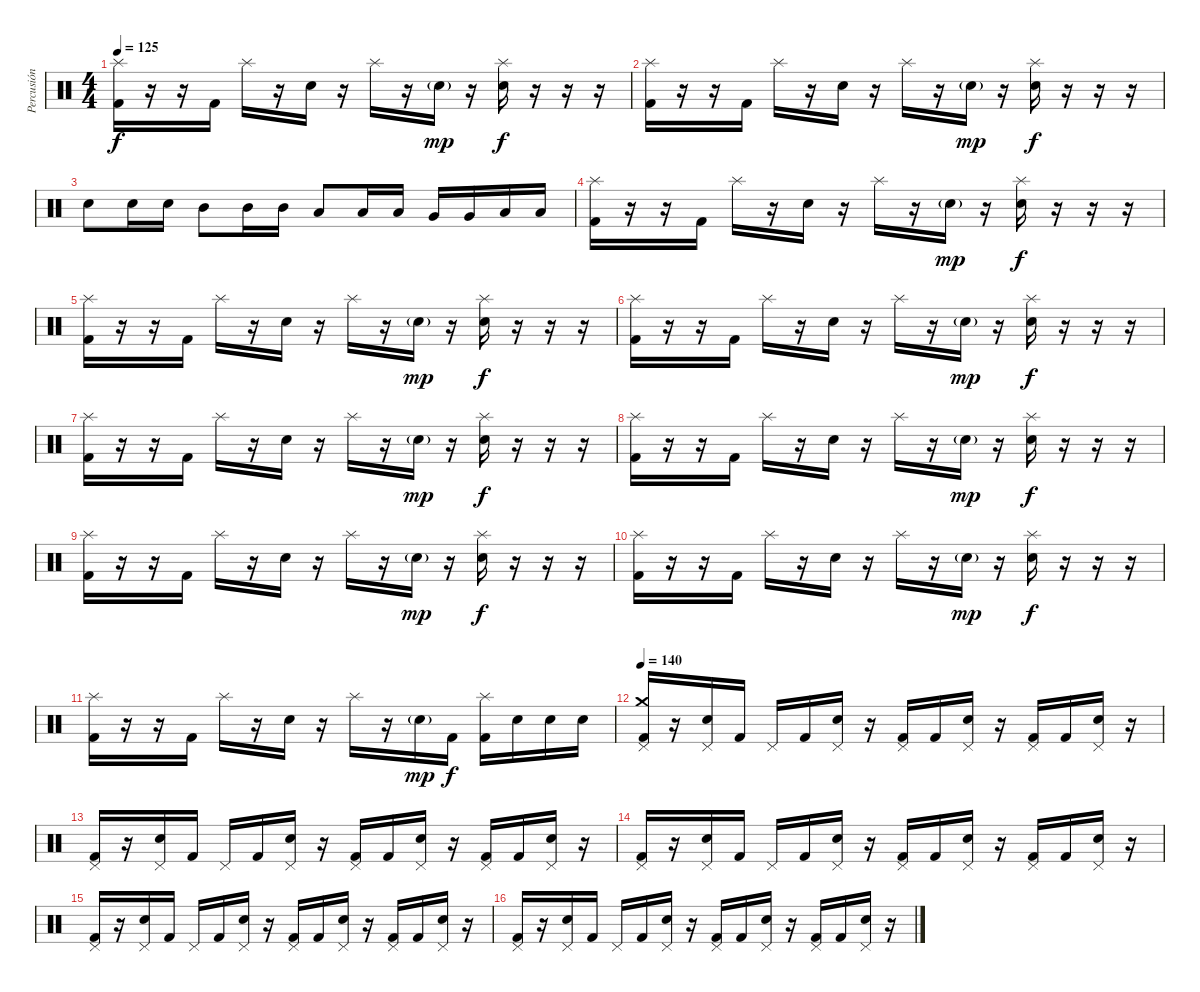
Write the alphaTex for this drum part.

\track ("Percusión" "Percusión") {instrument percussion}
\staff {score}
\articulation defaults
\ts (4 4)
\tempo 125
\clef neutral
\ks c
("Splash (hit)" "Kick (hit) 2").16{dy f} r.16 r.16 "Kick (hit) 2".16 "Splash (hit)".16 r.16 "Electric Snare (hit)".16 r.16 "Splash (hit)".16 r.16 "Electric Snare (hit)"{g}.16{dy mp} r.16 ("Splash (hit)" "Electric Snare (hit)").16{dy f} r.16 r.16 r.16 |
("Splash (hit)" "Kick (hit) 2").16 r.16 r.16 "Kick (hit) 2".16 "Splash (hit)".16 r.16 "Electric Snare (hit)".16 r.16 "Splash (hit)".16 r.16 "Electric Snare (hit)"{g}.16{dy mp} r.16 ("Splash (hit)" "Electric Snare (hit)").16{dy f} r.16 r.16 r.16 |
"Electric Snare (hit)".8 "Electric Snare (hit)".16 "Electric Snare (hit)".16 "Mid Tom (hit)".8 "Mid Tom (hit)".16 "Mid Tom (hit)".16 "Low Tom (hit)".8 "Low Tom (hit)".16 "Low Tom (hit)".16 "Very Low Tom (hit)".16 "Very Low Tom (hit)".16 "Low Floor Tom (hit)".16 "Low Floor Tom (hit)".16 |
("Splash (hit)" "Kick (hit) 2").16 r.16 r.16 "Kick (hit) 2".16 "Splash (hit)".16 r.16 "Electric Snare (hit)".16 r.16 "Splash (hit)".16 r.16 "Electric Snare (hit)"{g}.16{dy mp} r.16 ("Splash (hit)" "Electric Snare (hit)").16{dy f} r.16 r.16 r.16 |
("Splash (hit)" "Kick (hit) 2").16 r.16 r.16 "Kick (hit) 2".16 "Splash (hit)".16 r.16 "Electric Snare (hit)".16 r.16 "Splash (hit)".16 r.16 "Electric Snare (hit)"{g}.16{dy mp} r.16 ("Splash (hit)" "Electric Snare (hit)").16{dy f} r.16 r.16 r.16 |
("Splash (hit)" "Kick (hit) 2").16 r.16 r.16 "Kick (hit) 2".16 "Splash (hit)".16 r.16 "Electric Snare (hit)".16 r.16 "Splash (hit)".16 r.16 "Electric Snare (hit)"{g}.16{dy mp} r.16 ("Splash (hit)" "Electric Snare (hit)").16{dy f} r.16 r.16 r.16 |
("Splash (hit)" "Kick (hit) 2").16 r.16 r.16 "Kick (hit) 2".16 "Splash (hit)".16 r.16 "Electric Snare (hit)".16 r.16 "Splash (hit)".16 r.16 "Electric Snare (hit)"{g}.16{dy mp} r.16 ("Splash (hit)" "Electric Snare (hit)").16{dy f} r.16 r.16 r.16 |
("Splash (hit)" "Kick (hit) 2").16 r.16 r.16 "Kick (hit) 2".16 "Splash (hit)".16 r.16 "Electric Snare (hit)".16 r.16 "Splash (hit)".16 r.16 "Electric Snare (hit)"{g}.16{dy mp} r.16 ("Splash (hit)" "Electric Snare (hit)").16{dy f} r.16 r.16 r.16 |
("Splash (hit)" "Kick (hit) 2").16 r.16 r.16 "Kick (hit) 2".16 "Splash (hit)".16 r.16 "Electric Snare (hit)".16 r.16 "Splash (hit)".16 r.16 "Electric Snare (hit)"{g}.16{dy mp} r.16 ("Splash (hit)" "Electric Snare (hit)").16{dy f} r.16 r.16 r.16 |
("Splash (hit)" "Kick (hit) 2").16 r.16 r.16 "Kick (hit) 2".16 "Splash (hit)".16 r.16 "Electric Snare (hit)".16 r.16 "Splash (hit)".16 r.16 "Electric Snare (hit)"{g}.16{dy mp} r.16 ("Splash (hit)" "Electric Snare (hit)").16{dy f} r.16 r.16 r.16 |
("Splash (hit)" "Kick (hit) 2").16 r.16 r.16 "Kick (hit) 2".16 "Splash (hit)".16 r.16 "Electric Snare (hit)".16 r.16 "Splash (hit)".16 r.16 "Electric Snare (hit)"{g}.16{dy mp} "Kick (hit) 2".16{dy f} ("Splash (hit)" "Kick (hit) 2").16 "Electric Snare (hit)".16 "Electric Snare (hit)".16 "Electric Snare (hit)".16 |
\tempo 140
("Crash medium (hit)" "Pedal Hi-Hat (hit)" "Kick (hit) 2").16 r.16 ("Pedal Hi-Hat (hit)" "Electric Snare (hit)").16 "Kick (hit) 2".16 "Pedal Hi-Hat (hit)".16 "Kick (hit) 2".16 ("Pedal Hi-Hat (hit)" "Electric Snare (hit)").16 r.16 ("Pedal Hi-Hat (hit)" "Kick (hit) 2").16 "Kick (hit) 2".16 ("Pedal Hi-Hat (hit)" "Electric Snare (hit)").16 r.16 ("Pedal Hi-Hat (hit)" "Kick (hit) 2").16 "Kick (hit) 2".16 ("Pedal Hi-Hat (hit)" "Electric Snare (hit)").16 r.16 |
("Pedal Hi-Hat (hit)" "Kick (hit) 2").16 r.16 ("Pedal Hi-Hat (hit)" "Electric Snare (hit)").16 "Kick (hit) 2".16 "Pedal Hi-Hat (hit)".16 "Kick (hit) 2".16 ("Pedal Hi-Hat (hit)" "Electric Snare (hit)").16 r.16 ("Pedal Hi-Hat (hit)" "Kick (hit) 2").16 "Kick (hit) 2".16 ("Pedal Hi-Hat (hit)" "Electric Snare (hit)").16 r.16 ("Pedal Hi-Hat (hit)" "Kick (hit) 2").16 "Kick (hit) 2".16 ("Pedal Hi-Hat (hit)" "Electric Snare (hit)").16 r.16 |
("Pedal Hi-Hat (hit)" "Kick (hit) 2").16 r.16 ("Pedal Hi-Hat (hit)" "Electric Snare (hit)").16 "Kick (hit) 2".16 "Pedal Hi-Hat (hit)".16 "Kick (hit) 2".16 ("Pedal Hi-Hat (hit)" "Electric Snare (hit)").16 r.16 ("Pedal Hi-Hat (hit)" "Kick (hit) 2").16 "Kick (hit) 2".16 ("Pedal Hi-Hat (hit)" "Electric Snare (hit)").16 r.16 ("Pedal Hi-Hat (hit)" "Kick (hit) 2").16 "Kick (hit) 2".16 ("Pedal Hi-Hat (hit)" "Electric Snare (hit)").16 r.16 |
("Pedal Hi-Hat (hit)" "Kick (hit) 2").16 r.16 ("Pedal Hi-Hat (hit)" "Electric Snare (hit)").16 "Kick (hit) 2".16 "Pedal Hi-Hat (hit)".16 "Kick (hit) 2".16 ("Pedal Hi-Hat (hit)" "Electric Snare (hit)").16 r.16 ("Pedal Hi-Hat (hit)" "Kick (hit) 2").16 "Kick (hit) 2".16 ("Pedal Hi-Hat (hit)" "Electric Snare (hit)").16 r.16 ("Pedal Hi-Hat (hit)" "Kick (hit) 2").16 "Kick (hit) 2".16 ("Pedal Hi-Hat (hit)" "Electric Snare (hit)").16 r.16 |
("Pedal Hi-Hat (hit)" "Kick (hit) 2").16 r.16 ("Pedal Hi-Hat (hit)" "Electric Snare (hit)").16 "Kick (hit) 2".16 "Pedal Hi-Hat (hit)".16 "Kick (hit) 2".16 ("Pedal Hi-Hat (hit)" "Electric Snare (hit)").16 r.16 ("Pedal Hi-Hat (hit)" "Kick (hit) 2").16 "Kick (hit) 2".16 ("Pedal Hi-Hat (hit)" "Electric Snare (hit)").16 r.16 ("Pedal Hi-Hat (hit)" "Kick (hit) 2").16 "Kick (hit) 2".16 ("Pedal Hi-Hat (hit)" "Electric Snare (hit)").16 r.16
